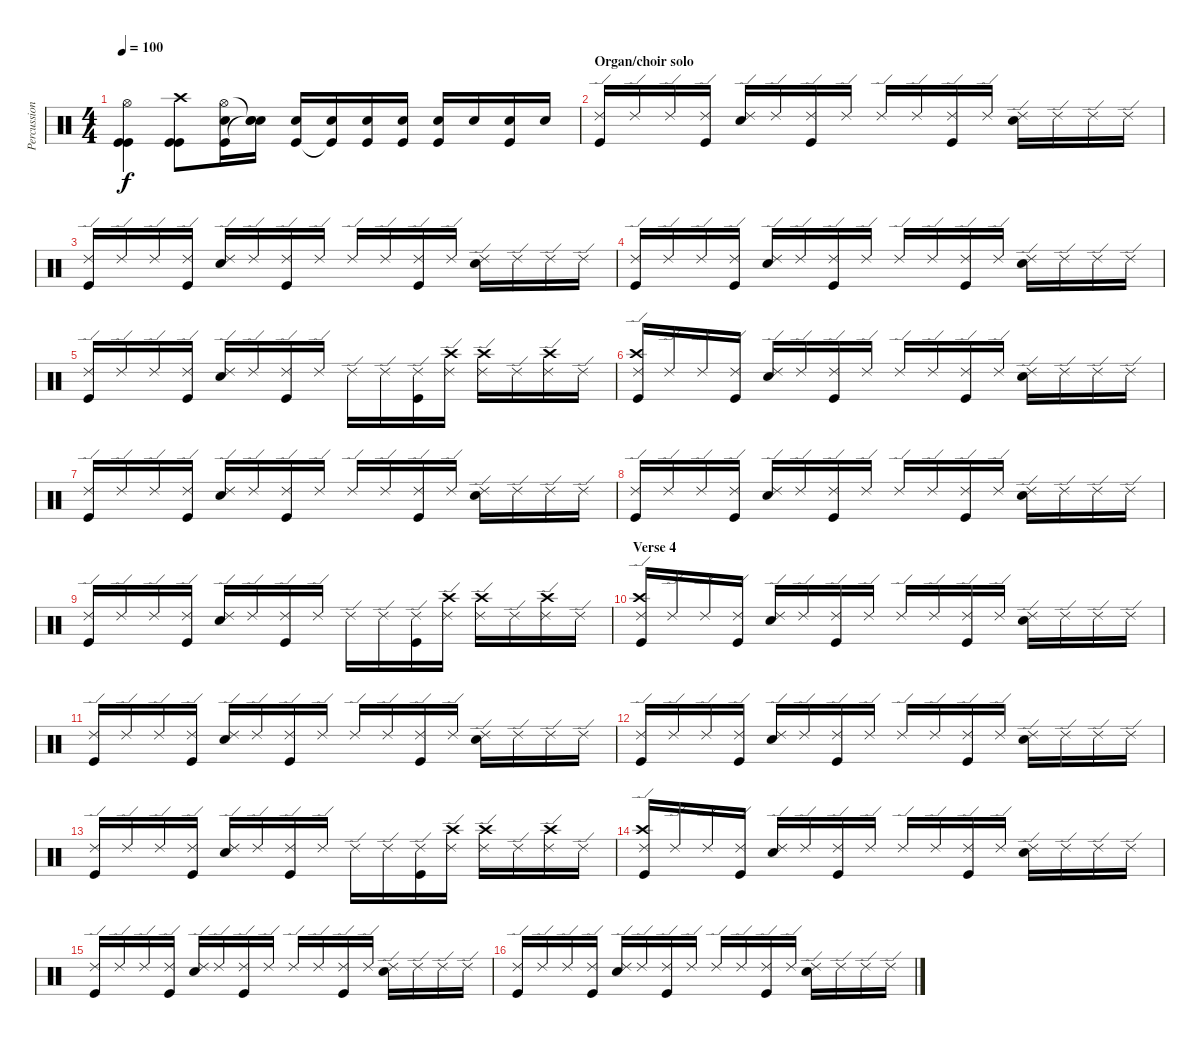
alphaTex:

\track ("Percussion" "Percussion") {instrument percussion}
\staff {score}
\articulation defaults
\ts (4 4)
\tempo 100
\clef neutral
\ks c
("Hi-Hat (open)" "Kick (hit)" "Kick (hit)").4{dy f} ("Crash high (hit)" "Kick (hit)" "Kick (hit)").8 ("Hi-Hat (open)" "Snare (hit) 2" "Kick (hit)").16 ("Snare (hit)"{t} "Snare (hit) 2" "Snare (hit)"{t}).16 ("Snare (hit) 2" "Kick (hit)").16 ("Snare (hit) 2" "Kick (hit)"{t}).16 ("Snare (hit) 2" "Kick (hit)").16 ("Snare (hit) 2" "Kick (hit)").16 ("Snare (hit) 2" "Kick (hit)").16 "Snare (hit) 2".16 ("Snare (hit) 2" "Kick (hit)").16 "Snare (hit) 2".16 |
\section ("" "Organ/choir solo")
("Ride (edge) 2" "Kick (hit)").16 "Ride (edge) 2".16 "Ride (edge) 2".16 ("Ride (edge) 2" "Kick (hit)").16 ("Ride (edge) 2" "Snare (hit) 2").16 "Ride (edge) 2".16 ("Ride (edge) 2" "Kick (hit)").16 "Ride (edge) 2".16 "Ride (edge) 2".16 "Ride (edge) 2".16 ("Ride (edge) 2" "Kick (hit)").16 "Ride (edge) 2".16 ("Ride (edge) 2" "Snare (hit) 2").16 "Ride (edge) 2".16 "Ride (edge) 2".16 "Ride (edge) 2".16 |
("Ride (edge) 2" "Kick (hit)").16 "Ride (edge) 2".16 "Ride (edge) 2".16 ("Ride (edge) 2" "Kick (hit)").16 ("Ride (edge) 2" "Snare (hit) 2").16 "Ride (edge) 2".16 ("Ride (edge) 2" "Kick (hit)").16 "Ride (edge) 2".16 "Ride (edge) 2".16 "Ride (edge) 2".16 ("Ride (edge) 2" "Kick (hit)").16 "Ride (edge) 2".16 ("Ride (edge) 2" "Snare (hit) 2").16 "Ride (edge) 2".16 "Ride (edge) 2".16 "Ride (edge) 2".16 |
("Ride (edge) 2" "Kick (hit)").16 "Ride (edge) 2".16 "Ride (edge) 2".16 ("Ride (edge) 2" "Kick (hit)").16 ("Ride (edge) 2" "Snare (hit) 2").16 "Ride (edge) 2".16 ("Ride (edge) 2" "Kick (hit)").16 "Ride (edge) 2".16 "Ride (edge) 2".16 "Ride (edge) 2".16 ("Ride (edge) 2" "Kick (hit)").16 "Ride (edge) 2".16 ("Ride (edge) 2" "Snare (hit) 2").16 "Ride (edge) 2".16 "Ride (edge) 2".16 "Ride (edge) 2".16 |
("Ride (edge) 2" "Kick (hit)").16 "Ride (edge) 2".16 "Ride (edge) 2".16 ("Ride (edge) 2" "Kick (hit)").16 ("Ride (edge) 2" "Snare (hit) 2").16 "Ride (edge) 2".16 ("Ride (edge) 2" "Kick (hit)").16 "Ride (edge) 2".16 "Ride (edge) 2".16 "Ride (edge) 2".16 ("Ride (edge) 2" "Kick (hit)").16 ("Ride (edge) 2" "Crash high (hit)").16 ("Ride (edge) 2" "Crash high (hit)").16 "Ride (edge) 2".16 ("Ride (edge) 2" "Crash high (hit)").16 "Ride (edge) 2".16 |
("Ride (edge) 2" "Crash high (hit)" "Kick (hit)").16 "Ride (edge) 2".16 "Ride (edge) 2".16 ("Ride (edge) 2" "Kick (hit)").16 ("Ride (edge) 2" "Snare (hit) 2").16 "Ride (edge) 2".16 ("Ride (edge) 2" "Kick (hit)").16 "Ride (edge) 2".16 "Ride (edge) 2".16 "Ride (edge) 2".16 ("Ride (edge) 2" "Kick (hit)").16 "Ride (edge) 2".16 ("Ride (edge) 2" "Snare (hit) 2").16 "Ride (edge) 2".16 "Ride (edge) 2".16 "Ride (edge) 2".16 |
("Ride (edge) 2" "Kick (hit)").16 "Ride (edge) 2".16 "Ride (edge) 2".16 ("Ride (edge) 2" "Kick (hit)").16 ("Ride (edge) 2" "Snare (hit) 2").16 "Ride (edge) 2".16 ("Ride (edge) 2" "Kick (hit)").16 "Ride (edge) 2".16 "Ride (edge) 2".16 "Ride (edge) 2".16 ("Ride (edge) 2" "Kick (hit)").16 "Ride (edge) 2".16 ("Ride (edge) 2" "Snare (hit) 2").16 "Ride (edge) 2".16 "Ride (edge) 2".16 "Ride (edge) 2".16 |
("Ride (edge) 2" "Kick (hit)").16 "Ride (edge) 2".16 "Ride (edge) 2".16 ("Ride (edge) 2" "Kick (hit)").16 ("Ride (edge) 2" "Snare (hit) 2").16 "Ride (edge) 2".16 ("Ride (edge) 2" "Kick (hit)").16 "Ride (edge) 2".16 "Ride (edge) 2".16 "Ride (edge) 2".16 ("Ride (edge) 2" "Kick (hit)").16 "Ride (edge) 2".16 ("Ride (edge) 2" "Snare (hit) 2").16 "Ride (edge) 2".16 "Ride (edge) 2".16 "Ride (edge) 2".16 |
("Ride (edge) 2" "Kick (hit)").16 "Ride (edge) 2".16 "Ride (edge) 2".16 ("Ride (edge) 2" "Kick (hit)").16 ("Ride (edge) 2" "Snare (hit) 2").16 "Ride (edge) 2".16 ("Ride (edge) 2" "Kick (hit)").16 "Ride (edge) 2".16 "Ride (edge) 2".16 "Ride (edge) 2".16 ("Ride (edge) 2" "Kick (hit)").16 ("Ride (edge) 2" "Crash high (hit)").16 ("Ride (edge) 2" "Crash high (hit)").16 "Ride (edge) 2".16 ("Ride (edge) 2" "Crash high (hit)").16 "Ride (edge) 2".16 |
\section ("" "Verse 4")
("Ride (edge) 2" "Crash high (hit)" "Kick (hit)").16 "Ride (edge) 2".16 "Ride (edge) 2".16 ("Ride (edge) 2" "Kick (hit)").16 ("Ride (edge) 2" "Snare (hit) 2").16 "Ride (edge) 2".16 ("Ride (edge) 2" "Kick (hit)").16 "Ride (edge) 2".16 "Ride (edge) 2".16 "Ride (edge) 2".16 ("Ride (edge) 2" "Kick (hit)").16 "Ride (edge) 2".16 ("Ride (edge) 2" "Snare (hit) 2").16 "Ride (edge) 2".16 "Ride (edge) 2".16 "Ride (edge) 2".16 |
("Ride (edge) 2" "Kick (hit)").16 "Ride (edge) 2".16 "Ride (edge) 2".16 ("Ride (edge) 2" "Kick (hit)").16 ("Ride (edge) 2" "Snare (hit) 2").16 "Ride (edge) 2".16 ("Ride (edge) 2" "Kick (hit)").16 "Ride (edge) 2".16 "Ride (edge) 2".16 "Ride (edge) 2".16 ("Ride (edge) 2" "Kick (hit)").16 "Ride (edge) 2".16 ("Ride (edge) 2" "Snare (hit) 2").16 "Ride (edge) 2".16 "Ride (edge) 2".16 "Ride (edge) 2".16 |
("Ride (edge) 2" "Kick (hit)").16 "Ride (edge) 2".16 "Ride (edge) 2".16 ("Ride (edge) 2" "Kick (hit)").16 ("Ride (edge) 2" "Snare (hit) 2").16 "Ride (edge) 2".16 ("Ride (edge) 2" "Kick (hit)").16 "Ride (edge) 2".16 "Ride (edge) 2".16 "Ride (edge) 2".16 ("Ride (edge) 2" "Kick (hit)").16 "Ride (edge) 2".16 ("Ride (edge) 2" "Snare (hit) 2").16 "Ride (edge) 2".16 "Ride (edge) 2".16 "Ride (edge) 2".16 |
("Ride (edge) 2" "Kick (hit)").16 "Ride (edge) 2".16 "Ride (edge) 2".16 ("Ride (edge) 2" "Kick (hit)").16 ("Ride (edge) 2" "Snare (hit) 2").16 "Ride (edge) 2".16 ("Ride (edge) 2" "Kick (hit)").16 "Ride (edge) 2".16 "Ride (edge) 2".16 "Ride (edge) 2".16 ("Ride (edge) 2" "Kick (hit)").16 ("Ride (edge) 2" "Crash high (hit)").16 ("Ride (edge) 2" "Crash high (hit)").16 "Ride (edge) 2".16 ("Ride (edge) 2" "Crash high (hit)").16 "Ride (edge) 2".16 |
("Ride (edge) 2" "Crash high (hit)" "Kick (hit)").16 "Ride (edge) 2".16 "Ride (edge) 2".16 ("Ride (edge) 2" "Kick (hit)").16 ("Ride (edge) 2" "Snare (hit) 2").16 "Ride (edge) 2".16 ("Ride (edge) 2" "Kick (hit)").16 "Ride (edge) 2".16 "Ride (edge) 2".16 "Ride (edge) 2".16 ("Ride (edge) 2" "Kick (hit)").16 "Ride (edge) 2".16 ("Ride (edge) 2" "Snare (hit) 2").16 "Ride (edge) 2".16 "Ride (edge) 2".16 "Ride (edge) 2".16 |
("Ride (edge) 2" "Kick (hit)").16 "Ride (edge) 2".16 "Ride (edge) 2".16 ("Ride (edge) 2" "Kick (hit)").16 ("Ride (edge) 2" "Snare (hit) 2").16 "Ride (edge) 2".16 ("Ride (edge) 2" "Kick (hit)").16 "Ride (edge) 2".16 "Ride (edge) 2".16 "Ride (edge) 2".16 ("Ride (edge) 2" "Kick (hit)").16 "Ride (edge) 2".16 ("Ride (edge) 2" "Snare (hit) 2").16 "Ride (edge) 2".16 "Ride (edge) 2".16 "Ride (edge) 2".16 |
("Ride (edge) 2" "Kick (hit)").16 "Ride (edge) 2".16 "Ride (edge) 2".16 ("Ride (edge) 2" "Kick (hit)").16 ("Ride (edge) 2" "Snare (hit) 2").16 "Ride (edge) 2".16 ("Ride (edge) 2" "Kick (hit)").16 "Ride (edge) 2".16 "Ride (edge) 2".16 "Ride (edge) 2".16 ("Ride (edge) 2" "Kick (hit)").16 "Ride (edge) 2".16 ("Ride (edge) 2" "Snare (hit) 2").16 "Ride (edge) 2".16 "Ride (edge) 2".16 "Ride (edge) 2".16
